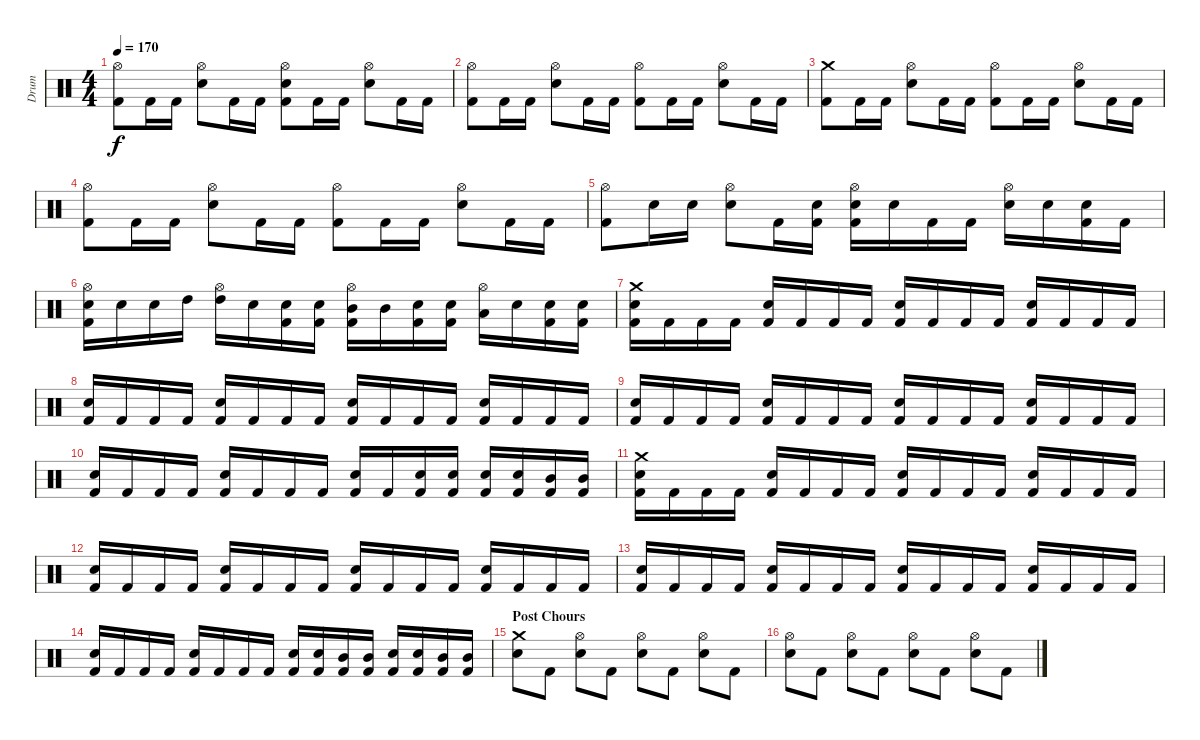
\track ("Drum" "Drum") {instrument percussion}
\staff
\articulation defaults
\ts (4 4)
\tempo 170
\clef neutral
\ks c
("Hi-Hat (open)" "Kick (hit) 2").8{dy f} "Kick (hit) 2".16 "Kick (hit) 2".16 ("Hi-Hat (open)" "Electric Snare (hit)").8 "Kick (hit) 2".16 "Kick (hit) 2".16 ("Hi-Hat (open)" "Electric Snare (hit)" "Kick (hit) 2").8 "Kick (hit) 2".16 "Kick (hit) 2".16 ("Hi-Hat (open)" "Electric Snare (hit)").8 "Kick (hit) 2".16 "Kick (hit) 2".16 |
("Hi-Hat (open)" "Kick (hit) 2").8 "Kick (hit) 2".16 "Kick (hit) 2".16 ("Hi-Hat (open)" "Electric Snare (hit)").8 "Kick (hit) 2".16 "Kick (hit) 2".16 ("Hi-Hat (open)" "Kick (hit) 2").8 "Kick (hit) 2".16 "Kick (hit) 2".16 ("Hi-Hat (open)" "Electric Snare (hit)").8 "Kick (hit) 2".16 "Kick (hit) 2".16 |
("Crash medium (hit)" "Kick (hit) 2").8 "Kick (hit) 2".16 "Kick (hit) 2".16 ("Hi-Hat (open)" "Electric Snare (hit)").8 "Kick (hit) 2".16 "Kick (hit) 2".16 ("Hi-Hat (open)" "Kick (hit) 2").8 "Kick (hit) 2".16 "Kick (hit) 2".16 ("Hi-Hat (open)" "Electric Snare (hit)").8 "Kick (hit) 2".16 "Kick (hit) 2".16 |
("Hi-Hat (open)" "Kick (hit) 2").8 "Kick (hit) 2".16 "Kick (hit) 2".16 ("Hi-Hat (open)" "Electric Snare (hit)").8 "Kick (hit) 2".16 "Kick (hit) 2".16 ("Hi-Hat (open)" "Kick (hit) 2").8 "Kick (hit) 2".16 "Kick (hit) 2".16 ("Hi-Hat (open)" "Electric Snare (hit)").8 "Kick (hit) 2".16 "Kick (hit) 2".16 |
("Hi-Hat (open)" "Kick (hit) 2").8 "Electric Snare (hit)".16 "Electric Snare (hit)".16 ("Hi-Hat (open)" "Electric Snare (hit)").8 "Kick (hit) 2".16 ("Electric Snare (hit)" "Kick (hit) 2").16 ("Hi-Hat (open)" "Electric Snare (hit)" "Kick (hit) 2").16 "Electric Snare (hit)".16 "Kick (hit) 2".16 "Kick (hit) 2".16 ("Hi-Hat (open)" "Electric Snare (hit)").16 "Electric Snare (hit)".16 ("Electric Snare (hit)" "Kick (hit) 2").16 "Kick (hit) 2".16 |
("Hi-Hat (open)" "Electric Snare (hit)" "Kick (hit) 2").16 "Electric Snare (hit)".16 "Electric Snare (hit)".16 "High Tom (hit)".16 ("Hi-Hat (open)" "High Tom (hit)").16 "Electric Snare (hit)".16 ("Electric Snare (hit)" "Kick (hit) 2").16 ("Electric Snare (hit)" "Kick (hit) 2").16 ("Hi-Hat (open)" "Mid Tom (hit)" "Kick (hit) 2").16 "Mid Tom (hit)".16 ("Electric Snare (hit)" "Kick (hit) 2").16 ("Electric Snare (hit)" "Kick (hit) 2").16 ("Hi-Hat (open)" "Low Tom (hit)").16 "Electric Snare (hit)".16 ("Electric Snare (hit)" "Kick (hit) 2").16 ("Electric Snare (hit)" "Kick (hit) 2").16 |
("Crash medium (hit)" "Electric Snare (hit)" "Kick (hit) 2").16 "Kick (hit) 2".16 "Kick (hit) 2".16 "Kick (hit) 2".16 ("Electric Snare (hit)" "Kick (hit) 2").16 "Kick (hit) 2".16 "Kick (hit) 2".16 "Kick (hit) 2".16 ("Electric Snare (hit)" "Kick (hit) 2").16 "Kick (hit) 2".16 "Kick (hit) 2".16 "Kick (hit) 2".16 ("Electric Snare (hit)" "Kick (hit) 2").16 "Kick (hit) 2".16 "Kick (hit) 2".16 "Kick (hit) 2".16 |
("Electric Snare (hit)" "Kick (hit) 2").16 "Kick (hit) 2".16 "Kick (hit) 2".16 "Kick (hit) 2".16 ("Electric Snare (hit)" "Kick (hit) 2").16 "Kick (hit) 2".16 "Kick (hit) 2".16 "Kick (hit) 2".16 ("Electric Snare (hit)" "Kick (hit) 2").16 "Kick (hit) 2".16 "Kick (hit) 2".16 "Kick (hit) 2".16 ("Electric Snare (hit)" "Kick (hit) 2").16 "Kick (hit) 2".16 "Kick (hit) 2".16 "Kick (hit) 2".16 |
("Electric Snare (hit)" "Kick (hit) 2").16 "Kick (hit) 2".16 "Kick (hit) 2".16 "Kick (hit) 2".16 ("Electric Snare (hit)" "Kick (hit) 2").16 "Kick (hit) 2".16 "Kick (hit) 2".16 "Kick (hit) 2".16 ("Electric Snare (hit)" "Kick (hit) 2").16 "Kick (hit) 2".16 "Kick (hit) 2".16 "Kick (hit) 2".16 ("Electric Snare (hit)" "Kick (hit) 2").16 "Kick (hit) 2".16 "Kick (hit) 2".16 "Kick (hit) 2".16 |
("Electric Snare (hit)" "Kick (hit) 2").16 "Kick (hit) 2".16 "Kick (hit) 2".16 "Kick (hit) 2".16 ("Electric Snare (hit)" "Kick (hit) 2").16 "Kick (hit) 2".16 "Kick (hit) 2".16 "Kick (hit) 2".16 ("Electric Snare (hit)" "Kick (hit) 2").16 "Kick (hit) 2".16 ("Electric Snare (hit)" "Kick (hit) 2").16 ("Electric Snare (hit)" "Kick (hit) 2").16 ("Electric Snare (hit)" "Kick (hit) 2").16 ("Electric Snare (hit)" "Kick (hit) 2").16 ("Mid Tom (hit)" "Kick (hit) 2").16 ("Mid Tom (hit)" "Kick (hit) 2").16 |
("Crash medium (hit)" "Electric Snare (hit)" "Kick (hit) 2").16 "Kick (hit) 2".16 "Kick (hit) 2".16 "Kick (hit) 2".16 ("Electric Snare (hit)" "Kick (hit) 2").16 "Kick (hit) 2".16 "Kick (hit) 2".16 "Kick (hit) 2".16 ("Electric Snare (hit)" "Kick (hit) 2").16 "Kick (hit) 2".16 "Kick (hit) 2".16 "Kick (hit) 2".16 ("Electric Snare (hit)" "Kick (hit) 2").16 "Kick (hit) 2".16 "Kick (hit) 2".16 "Kick (hit) 2".16 |
("Electric Snare (hit)" "Kick (hit) 2").16 "Kick (hit) 2".16 "Kick (hit) 2".16 "Kick (hit) 2".16 ("Electric Snare (hit)" "Kick (hit) 2").16 "Kick (hit) 2".16 "Kick (hit) 2".16 "Kick (hit) 2".16 ("Electric Snare (hit)" "Kick (hit) 2").16 "Kick (hit) 2".16 "Kick (hit) 2".16 "Kick (hit) 2".16 ("Electric Snare (hit)" "Kick (hit) 2").16 "Kick (hit) 2".16 "Kick (hit) 2".16 "Kick (hit) 2".16 |
("Electric Snare (hit)" "Kick (hit) 2").16 "Kick (hit) 2".16 "Kick (hit) 2".16 "Kick (hit) 2".16 ("Electric Snare (hit)" "Kick (hit) 2").16 "Kick (hit) 2".16 "Kick (hit) 2".16 "Kick (hit) 2".16 ("Electric Snare (hit)" "Kick (hit) 2").16 "Kick (hit) 2".16 "Kick (hit) 2".16 "Kick (hit) 2".16 ("Electric Snare (hit)" "Kick (hit) 2").16 "Kick (hit) 2".16 "Kick (hit) 2".16 "Kick (hit) 2".16 |
("Electric Snare (hit)" "Kick (hit) 2").16 "Kick (hit) 2".16 "Kick (hit) 2".16 "Kick (hit) 2".16 ("Electric Snare (hit)" "Kick (hit) 2").16 "Kick (hit) 2".16 "Kick (hit) 2".16 "Kick (hit) 2".16 ("Electric Snare (hit)" "Kick (hit) 2").16 ("Electric Snare (hit)" "Kick (hit) 2").16 ("Mid Tom (hit)" "Kick (hit) 2").16 ("Mid Tom (hit)" "Kick (hit) 2").16 ("Electric Snare (hit)" "Kick (hit) 2").16 ("Electric Snare (hit)" "Kick (hit) 2").16 ("Mid Tom (hit)" "Kick (hit) 2").16 ("Mid Tom (hit)" "Kick (hit) 2").16 |
\section ("" "Post Chours")
("Crash medium (hit)" "Electric Snare (hit)").8 "Kick (hit) 2".8 ("Hi-Hat (open)" "Electric Snare (hit)").8 "Kick (hit) 2".8 ("Hi-Hat (open)" "Electric Snare (hit)").8 "Kick (hit) 2".8 ("Hi-Hat (open)" "Electric Snare (hit)").8 "Kick (hit) 2".8 |
("Hi-Hat (open)" "Electric Snare (hit)").8 "Kick (hit) 2".8 ("Hi-Hat (open)" "Electric Snare (hit)").8 "Kick (hit) 2".8 ("Hi-Hat (open)" "Electric Snare (hit)").8 "Kick (hit) 2".8 ("Hi-Hat (open)" "Electric Snare (hit)").8 "Kick (hit) 2".8
